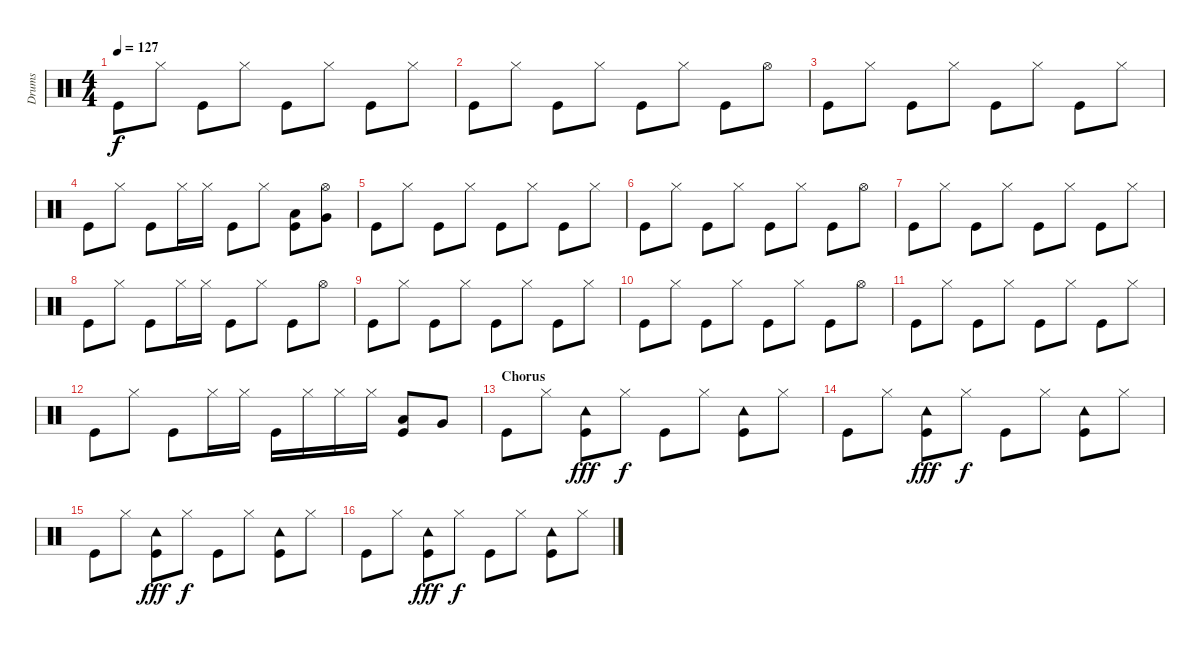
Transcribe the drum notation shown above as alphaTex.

\track ("Drums" "Drums") {instrument percussion}
\staff {score}
\articulation defaults
\ts (4 4)
\tempo 127
\clef neutral
\ks c "Kick (hit)".8{dy f} "Hi-Hat (closed)".8 "Kick (hit)".8 "Hi-Hat (closed)".8 "Kick (hit)".8 "Hi-Hat (closed)".8 "Kick (hit)".8 "Hi-Hat (closed)".8
|
"Kick (hit)".8 "Hi-Hat (closed)".8 "Kick (hit)".8 "Hi-Hat (closed)".8 "Kick (hit)".8 "Hi-Hat (closed)".8 "Kick (hit)".8 "Hi-Hat (open)".8 |
"Kick (hit)".8 "Hi-Hat (closed)".8 "Kick (hit)".8 "Hi-Hat (closed)".8 "Kick (hit)".8 "Hi-Hat (closed)".8 "Kick (hit)".8 "Hi-Hat (closed)".8 |
"Kick (hit)".8 "Hi-Hat (closed)".8 "Kick (hit)".8 "Hi-Hat (closed)".16 "Hi-Hat (closed)".16 "Kick (hit)".8 "Hi-Hat (closed)".8 ("Low Tom (hit)" "Kick (hit)").8 ("Hi-Hat (open)" "Very Low Tom (hit)").8 |
"Kick (hit)".8 "Hi-Hat (closed)".8 "Kick (hit)".8 "Hi-Hat (closed)".8 "Kick (hit)".8 "Hi-Hat (closed)".8 "Kick (hit)".8 "Hi-Hat (closed)".8 |
"Kick (hit)".8 "Hi-Hat (closed)".8 "Kick (hit)".8 "Hi-Hat (closed)".8 "Kick (hit)".8 "Hi-Hat (closed)".8 "Kick (hit)".8 "Hi-Hat (open)".8 |
"Kick (hit)".8 "Hi-Hat (closed)".8 "Kick (hit)".8 "Hi-Hat (closed)".8 "Kick (hit)".8 "Hi-Hat (closed)".8 "Kick (hit)".8 "Hi-Hat (closed)".8 |
"Kick (hit)".8 "Hi-Hat (closed)".8 "Kick (hit)".8 "Hi-Hat (closed)".16 "Hi-Hat (closed)".16 "Kick (hit)".8 "Hi-Hat (closed)".8 "Kick (hit)".8 "Hi-Hat (open)".8 |
"Kick (hit)".8 "Hi-Hat (closed)".8 "Kick (hit)".8 "Hi-Hat (closed)".8 "Kick (hit)".8 "Hi-Hat (closed)".8 "Kick (hit)".8 "Hi-Hat (closed)".8 |
"Kick (hit)".8 "Hi-Hat (closed)".8 "Kick (hit)".8 "Hi-Hat (closed)".8 "Kick (hit)".8 "Hi-Hat (closed)".8 "Kick (hit)".8 "Hi-Hat (open)".8 |
"Kick (hit)".8 "Hi-Hat (closed)".8 "Kick (hit)".8 "Hi-Hat (closed)".8 "Kick (hit)".8 "Hi-Hat (closed)".8 "Kick (hit)".8 "Hi-Hat (closed)".8 |
"Kick (hit)".8 "Hi-Hat (closed)".8 "Kick (hit)".8 "Hi-Hat (closed)".16 "Hi-Hat (closed)".16 "Kick (hit)".16 "Hi-Hat (closed)".16 "Hi-Hat (closed)".16 "Hi-Hat (closed)".16 ("Low Tom (hit)" "Kick (hit)").8 "Very Low Tom (hit)".8 |
\section ("" "Chorus")
"Kick (hit)".8 "Hi-Hat (closed)".8 ("Tambourine (hit)" "Kick (hit)").8{dy fff} "Hi-Hat (closed)".8{dy f} "Kick (hit)".8 "Hi-Hat (closed)".8 ("Tambourine (hit)" "Kick (hit)").8 "Hi-Hat (closed)".8 |
"Kick (hit)".8 "Hi-Hat (closed)".8 ("Tambourine (hit)" "Kick (hit)").8{dy fff} "Hi-Hat (closed)".8{dy f} "Kick (hit)".8 "Hi-Hat (closed)".8 ("Tambourine (hit)" "Kick (hit)").8 "Hi-Hat (closed)".8 |
"Kick (hit)".8 "Hi-Hat (closed)".8 ("Tambourine (hit)" "Kick (hit)").8{dy fff} "Hi-Hat (closed)".8{dy f} "Kick (hit)".8 "Hi-Hat (closed)".8 ("Tambourine (hit)" "Kick (hit)").8 "Hi-Hat (closed)".8 |
"Kick (hit)".8 "Hi-Hat (closed)".8 ("Tambourine (hit)" "Kick (hit)").8{dy fff} "Hi-Hat (closed)".8{dy f} "Kick (hit)".8 "Hi-Hat (closed)".8 ("Tambourine (hit)" "Kick (hit)").8 "Hi-Hat (closed)".8
